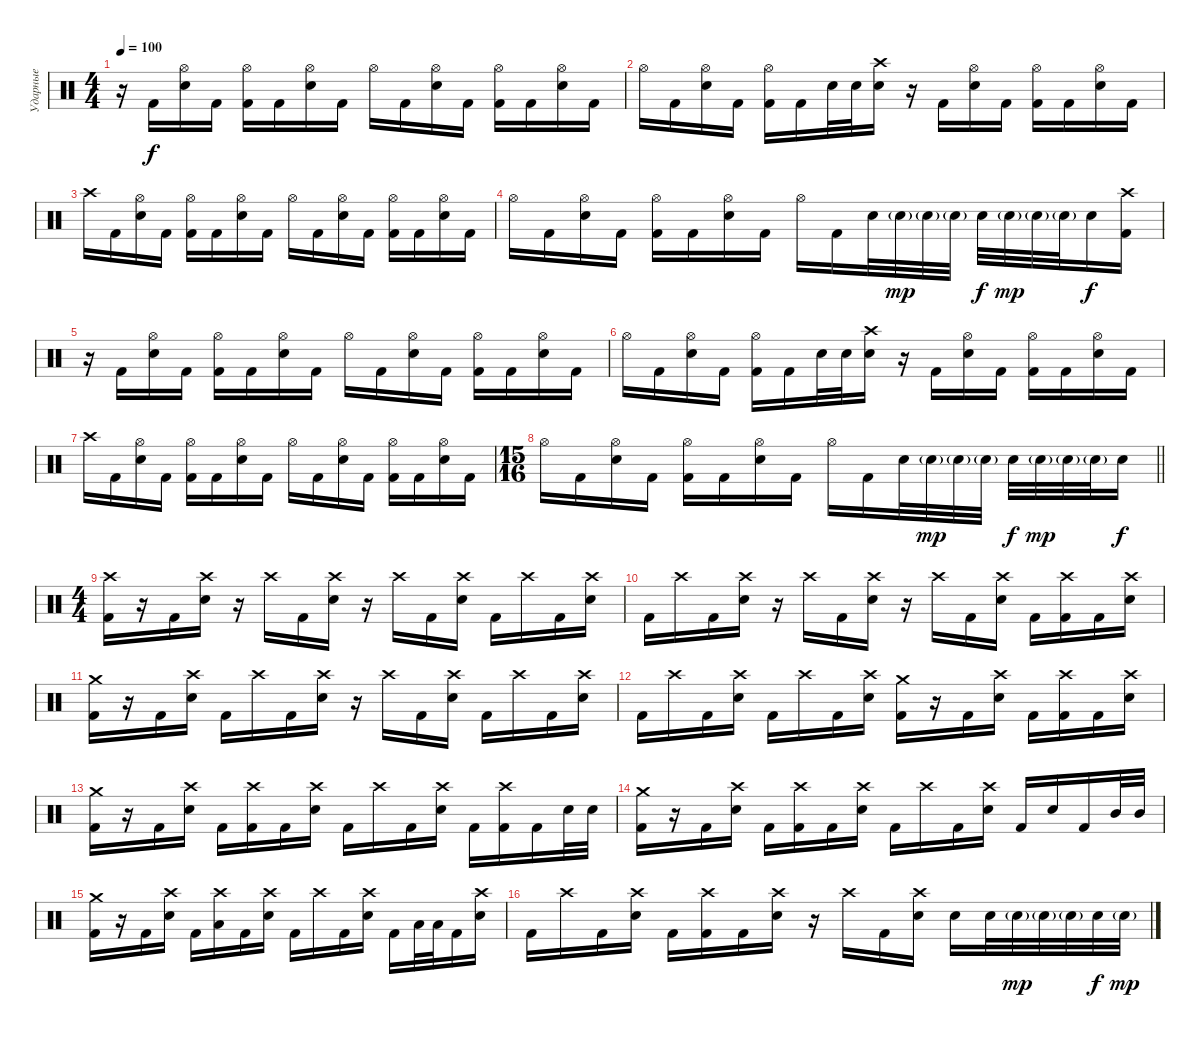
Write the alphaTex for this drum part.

\track ("Ударные" "Ударные") {instrument percussion}
\staff {score}
\articulation defaults
\ts (4 4)
\tempo 100
\clef neutral
\ks c
r.16{dy f} "Kick (hit) 2".16 ("Hi-Hat (open)" "Electric Snare (hit)").16 "Kick (hit) 2".16 ("Hi-Hat (open)" "Kick (hit) 2").16 "Kick (hit) 2".16 ("Hi-Hat (open)" "Electric Snare (hit)").16 "Kick (hit) 2".16 "Hi-Hat (open)".16 "Kick (hit) 2".16 ("Hi-Hat (open)" "Electric Snare (hit)").16 "Kick (hit) 2".16 ("Hi-Hat (open)" "Kick (hit) 2").16 "Kick (hit) 2".16 ("Hi-Hat (open)" "Electric Snare (hit)").16 "Kick (hit) 2".16 |
"Hi-Hat (open)".16 "Kick (hit) 2".16 ("Hi-Hat (open)" "Electric Snare (hit)").16 "Kick (hit) 2".16 ("Hi-Hat (open)" "Kick (hit) 2").16 "Kick (hit) 2".16 "Electric Snare (hit)".32 "Electric Snare (hit)".32 ("Crash high (hit)" "Electric Snare (hit)").16 r.16 "Kick (hit) 2".16 ("Hi-Hat (open)" "Electric Snare (hit)").16 "Kick (hit) 2".16 ("Hi-Hat (open)" "Kick (hit) 2").16 "Kick (hit) 2".16 ("Hi-Hat (open)" "Electric Snare (hit)").16 "Kick (hit) 2".16 |
"Crash high (hit)".16 "Kick (hit) 2".16 ("Hi-Hat (open)" "Electric Snare (hit)").16 "Kick (hit) 2".16 ("Hi-Hat (open)" "Kick (hit) 2").16 "Kick (hit) 2".16 ("Hi-Hat (open)" "Electric Snare (hit)").16 "Kick (hit) 2".16 "Hi-Hat (open)".16 "Kick (hit) 2".16 ("Hi-Hat (open)" "Electric Snare (hit)").16 "Kick (hit) 2".16 ("Hi-Hat (open)" "Kick (hit) 2").16 "Kick (hit) 2".16 ("Hi-Hat (open)" "Electric Snare (hit)").16 "Kick (hit) 2".16 |
"Hi-Hat (open)".16 "Kick (hit) 2".16 ("Hi-Hat (open)" "Electric Snare (hit)").16 "Kick (hit) 2".16 ("Hi-Hat (open)" "Kick (hit) 2").16 "Kick (hit) 2".16 ("Hi-Hat (open)" "Electric Snare (hit)").16 "Kick (hit) 2".16 "Hi-Hat (open)".16 "Kick (hit) 2".16 "Electric Snare (hit)".32 "Electric Snare (hit)"{g}.32{dy mp} "Electric Snare (hit)"{g}.32 "Electric Snare (hit)"{g}.32 "Electric Snare (hit)".32{dy f} "Electric Snare (hit)"{g}.32{dy mp} "Electric Snare (hit)"{g}.32 "Electric Snare (hit)"{g}.32 "Electric Snare (hit)".16{dy f} ("Crash high (hit)" "Kick (hit) 2").16 |
r.16 "Kick (hit) 2".16 ("Hi-Hat (open)" "Electric Snare (hit)").16 "Kick (hit) 2".16 ("Hi-Hat (open)" "Kick (hit) 2").16 "Kick (hit) 2".16 ("Hi-Hat (open)" "Electric Snare (hit)").16 "Kick (hit) 2".16 "Hi-Hat (open)".16 "Kick (hit) 2".16 ("Hi-Hat (open)" "Electric Snare (hit)").16 "Kick (hit) 2".16 ("Hi-Hat (open)" "Kick (hit) 2").16 "Kick (hit) 2".16 ("Hi-Hat (open)" "Electric Snare (hit)").16 "Kick (hit) 2".16 |
"Hi-Hat (open)".16 "Kick (hit) 2".16 ("Hi-Hat (open)" "Electric Snare (hit)").16 "Kick (hit) 2".16 ("Hi-Hat (open)" "Kick (hit) 2").16 "Kick (hit) 2".16 "Electric Snare (hit)".32 "Electric Snare (hit)".32 ("Crash high (hit)" "Electric Snare (hit)").16 r.16 "Kick (hit) 2".16 ("Hi-Hat (open)" "Electric Snare (hit)").16 "Kick (hit) 2".16 ("Hi-Hat (open)" "Kick (hit) 2").16 "Kick (hit) 2".16 ("Hi-Hat (open)" "Electric Snare (hit)").16 "Kick (hit) 2".16 |
"Crash high (hit)".16 "Kick (hit) 2".16 ("Hi-Hat (open)" "Electric Snare (hit)").16 "Kick (hit) 2".16 ("Hi-Hat (open)" "Kick (hit) 2").16 "Kick (hit) 2".16 ("Hi-Hat (open)" "Electric Snare (hit)").16 "Kick (hit) 2".16 "Hi-Hat (open)".16 "Kick (hit) 2".16 ("Hi-Hat (open)" "Electric Snare (hit)").16 "Kick (hit) 2".16 ("Hi-Hat (open)" "Kick (hit) 2").16 "Kick (hit) 2".16 ("Hi-Hat (open)" "Electric Snare (hit)").16 "Kick (hit) 2".16 |
\ts (15 16)
\barLineRight lightlight "Hi-Hat (open)".16 "Kick (hit) 2".16
("Hi-Hat (open)" "Electric Snare (hit)").16 "Kick (hit) 2".16 ("Hi-Hat (open)" "Kick (hit) 2").16 "Kick (hit) 2".16 ("Hi-Hat (open)" "Electric Snare (hit)").16 "Kick (hit) 2".16 "Hi-Hat (open)".16 "Kick (hit) 2".16 "Electric Snare (hit)".32 "Electric Snare (hit)"{g}.32{dy mp} "Electric Snare (hit)"{g}.32 "Electric Snare (hit)"{g}.32 "Electric Snare (hit)".32{dy f} "Electric Snare (hit)"{g}.32{dy mp} "Electric Snare (hit)"{g}.32 "Electric Snare (hit)"{g}.32 "Electric Snare (hit)".16{dy f} |
\ts (4 4)
\section ("" "")
("Crash high (hit)" "Kick (hit) 2").16 r.16 "Kick (hit) 2".16 ("Crash high (hit)" "Electric Snare (hit)").16 r.16 "Crash high (hit)".16 "Kick (hit) 2".16 ("Crash high (hit)" "Electric Snare (hit)").16 r.16 "Crash high (hit)".16 "Kick (hit) 2".16 ("Crash high (hit)" "Electric Snare (hit)").16 "Kick (hit) 2".16 "Crash high (hit)".16 "Kick (hit) 2".16 ("Crash high (hit)" "Electric Snare (hit)").16 |
"Kick (hit) 2".16 "Crash high (hit)".16 "Kick (hit) 2".16 ("Crash high (hit)" "Electric Snare (hit)").16 r.16 "Crash high (hit)".16 "Kick (hit) 2".16 ("Crash high (hit)" "Electric Snare (hit)").16 r.16 "Crash high (hit)".16 "Kick (hit) 2".16 ("Crash high (hit)" "Electric Snare (hit)").16 "Kick (hit) 2".16 ("Crash high (hit)" "Kick (hit) 2").16 "Kick (hit) 2".16 ("Crash high (hit)" "Electric Snare (hit)").16 |
("Crash medium (hit)" "Kick (hit) 2").16 r.16 "Kick (hit) 2".16 ("Crash high (hit)" "Electric Snare (hit)").16 "Kick (hit) 2".16 "Crash high (hit)".16 "Kick (hit) 2".16 ("Crash high (hit)" "Electric Snare (hit)").16 r.16 "Crash high (hit)".16 "Kick (hit) 2".16 ("Crash high (hit)" "Electric Snare (hit)").16 "Kick (hit) 2".16 "Crash high (hit)".16 "Kick (hit) 2".16 ("Crash high (hit)" "Electric Snare (hit)").16 |
"Kick (hit) 2".16 "Crash high (hit)".16 "Kick (hit) 2".16 ("Crash high (hit)" "Electric Snare (hit)").16 "Kick (hit) 2".16 "Crash high (hit)".16 "Kick (hit) 2".16 ("Crash high (hit)" "Electric Snare (hit)").16 ("Crash medium (hit)" "Kick (hit) 2").16 r.16 "Kick (hit) 2".16 ("Crash high (hit)" "Electric Snare (hit)").16 "Kick (hit) 2".16 ("Crash high (hit)" "Kick (hit) 2").16 "Kick (hit) 2".16 ("Crash high (hit)" "Electric Snare (hit)").16 |
("Crash medium (hit)" "Kick (hit) 2").16 r.16 "Kick (hit) 2".16 ("Crash high (hit)" "Electric Snare (hit)").16 "Kick (hit) 2".16 ("Crash high (hit)" "Kick (hit) 2").16 "Kick (hit) 2".16 ("Crash high (hit)" "Electric Snare (hit)").16 "Kick (hit) 2".16 "Crash high (hit)".16 "Kick (hit) 2".16 ("Crash high (hit)" "Electric Snare (hit)").16 "Kick (hit) 2".16 ("Crash high (hit)" "Kick (hit) 2").16 "Kick (hit) 2".16 "Electric Snare (hit)".32 "Electric Snare (hit)".32 |
("Crash medium (hit)" "Kick (hit) 2").16 r.16 "Kick (hit) 2".16 ("Crash high (hit)" "Electric Snare (hit)").16 "Kick (hit) 2".16 ("Crash high (hit)" "Kick (hit) 2").16 "Kick (hit) 2".16 ("Crash high (hit)" "Electric Snare (hit)").16 "Kick (hit) 2".16 "Crash high (hit)".16 "Kick (hit) 2".16 ("Crash high (hit)" "Electric Snare (hit)").16 "Kick (hit) 2".16 "Electric Snare (hit)".16 "Kick (hit) 2".16 "Mid Tom (hit)".32 "Mid Tom (hit)".32 |
("Crash medium (hit)" "Kick (hit) 2").16 r.16 "Kick (hit) 2".16 ("Crash high (hit)" "Electric Snare (hit)").16 "Kick (hit) 2".16 ("Crash high (hit)" "Low Floor Tom (hit)").16 "Kick (hit) 2".16 ("Crash high (hit)" "Electric Snare (hit)").16 "Kick (hit) 2".16 "Crash high (hit)".16 "Kick (hit) 2".16 ("Crash high (hit)" "Electric Snare (hit)").16 "Kick (hit) 2".16 "Low Tom (hit)".32 "Low Tom (hit)".32 "Kick (hit) 2".16 ("Crash high (hit)" "Electric Snare (hit)").16 |
"Kick (hit) 2".16 "Crash high (hit)".16 "Kick (hit) 2".16 ("Crash high (hit)" "Electric Snare (hit)").16 "Kick (hit) 2".16 ("Crash high (hit)" "Kick (hit) 2").16 "Kick (hit) 2".16 ("Crash high (hit)" "Electric Snare (hit)").16 r.16 "Crash high (hit)".16 "Kick (hit) 2".16 ("Crash high (hit)" "Electric Snare (hit)").16 "Electric Snare (hit)".16 "Electric Snare (hit)".32 "Electric Snare (hit)"{g}.32{dy mp} "Electric Snare (hit)"{g}.32 "Electric Snare (hit)"{g}.32 "Electric Snare (hit)".32{dy f} "Electric Snare (hit)"{g}.32{dy mp}
